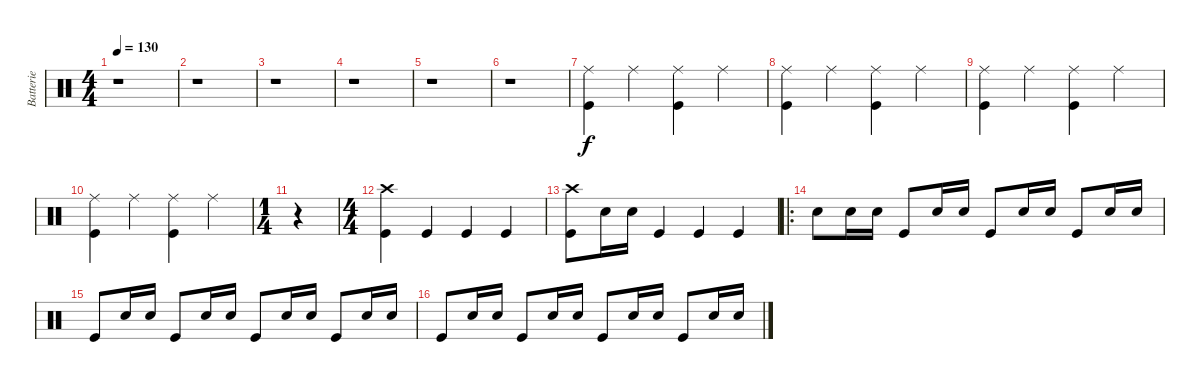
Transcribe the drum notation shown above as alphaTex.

\track ("Batterie" "Batterie") {instrument percussion}
\staff {score}
\articulation defaults
\ts (4 4)
\tempo 130
\clef neutral
\ks c
r.1{dy f} |
r.1 |
r.1 |
r.1 |
r.1 |
r.1 |
("Ride (middle)" "Kick (hit)").4 "Ride (middle)".4 ("Ride (middle)" "Kick (hit)").4 "Ride (middle)".4 |
("Ride (middle)" "Kick (hit)").4 "Ride (middle)".4 ("Ride (middle)" "Kick (hit)").4 "Ride (middle)".4 |
("Ride (middle)" "Kick (hit)").4 "Ride (middle)".4 ("Ride (middle)" "Kick (hit)").4 "Ride (middle)".4 |
("Ride (middle)" "Kick (hit)").4 "Ride (middle)".4 ("Ride (middle)" "Kick (hit)").4 "Ride (middle)".4 |
\ts (1 4)
r.4 |
\ts (4 4)
("Crash high (hit)" "Kick (hit)").4 "Kick (hit)".4 "Kick (hit)".4 "Kick (hit)".4 |
("Crash high (hit)" "Kick (hit)").8 "Snare (hit) 2".16 "Snare (hit) 2".16 "Kick (hit)".4 "Kick (hit)".4 "Kick (hit)".4 |
\ro "Snare (hit) 2".8 "Snare (hit) 2".16 "Snare (hit) 2".16 "Kick (hit)".8 "Snare (hit) 2".16 "Snare (hit) 2".16 "Kick (hit)".8 "Snare (hit) 2".16 "Snare (hit) 2".16 "Kick (hit)".8 "Snare (hit) 2".16 "Snare (hit) 2".16
|
"Kick (hit)".8 "Snare (hit) 2".16 "Snare (hit) 2".16 "Kick (hit)".8 "Snare (hit) 2".16 "Snare (hit) 2".16 "Kick (hit)".8 "Snare (hit) 2".16 "Snare (hit) 2".16 "Kick (hit)".8 "Snare (hit) 2".16 "Snare (hit) 2".16 |
"Kick (hit)".8 "Snare (hit) 2".16 "Snare (hit) 2".16 "Kick (hit)".8 "Snare (hit) 2".16 "Snare (hit) 2".16 "Kick (hit)".8 "Snare (hit) 2".16 "Snare (hit) 2".16 "Kick (hit)".8 "Snare (hit) 2".16 "Snare (hit) 2".16
